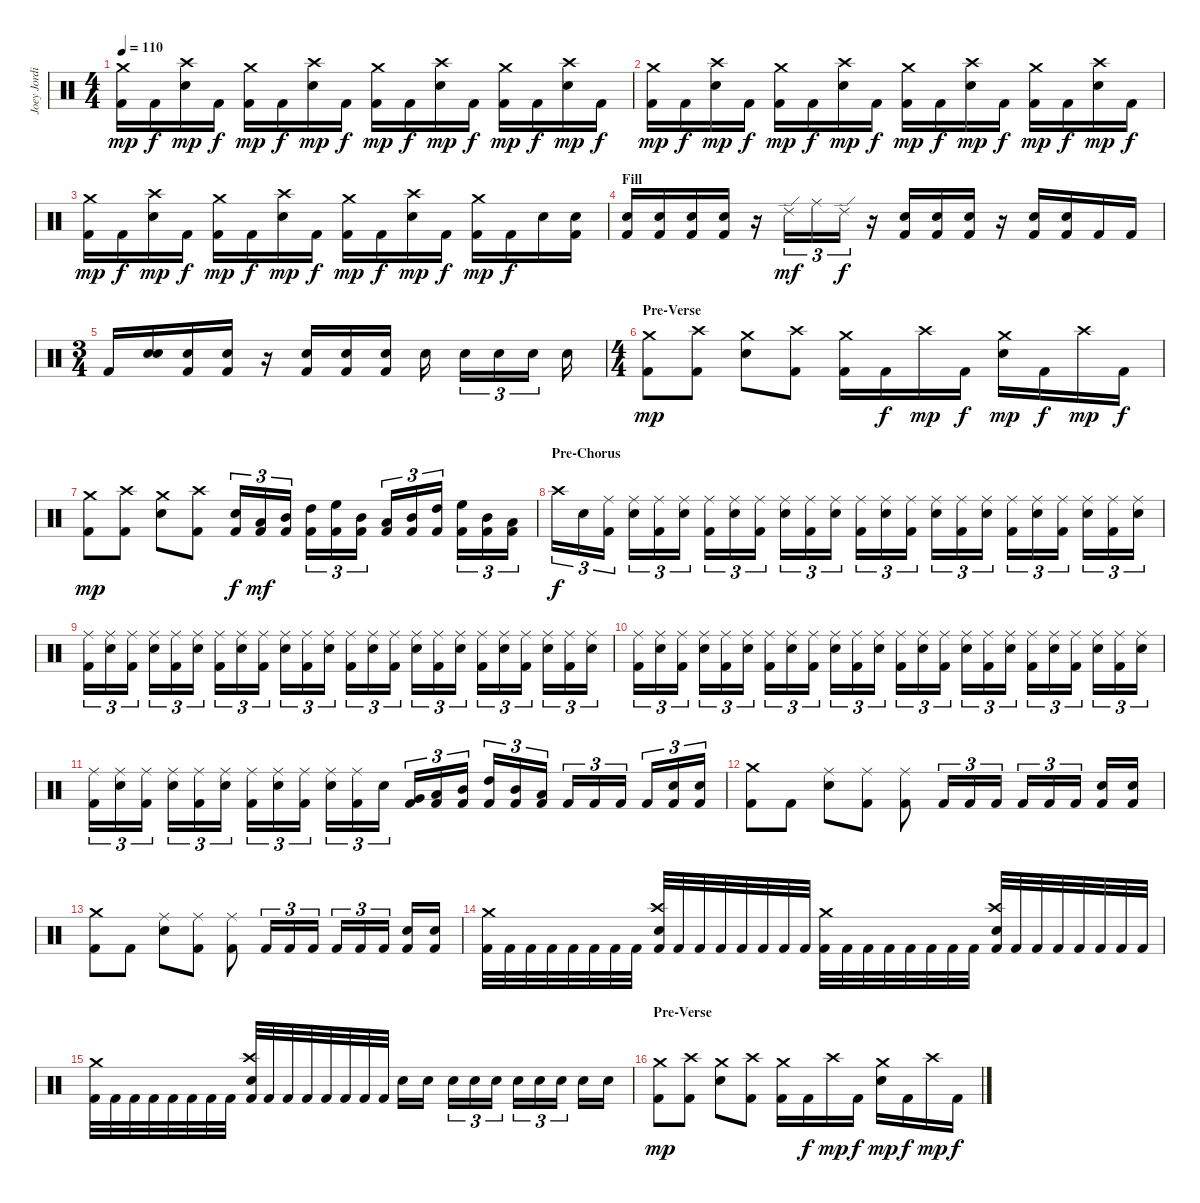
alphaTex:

\track ("Joey Jordison" "Joey Jordi") {instrument percussion}
\staff {score}
\articulation defaults
\ts (4 4)
\tempo 110
\clef neutral
\ks c
("Crash medium (hit)" "Kick (hit) 2").16{dy mp} "Kick (hit) 2".16{dy f} ("Crash high (hit)" "Snare (hit) 2").16{dy mp} "Kick (hit) 2".16{dy f} ("Crash medium (hit)" "Kick (hit) 2").16{dy mp} "Kick (hit) 2".16{dy f} ("Crash high (hit)" "Snare (hit) 2").16{dy mp} "Kick (hit) 2".16{dy f} ("Crash medium (hit)" "Kick (hit) 2").16{dy mp} "Kick (hit) 2".16{dy f} ("Crash high (hit)" "Snare (hit) 2").16{dy mp} "Kick (hit) 2".16{dy f} ("Crash medium (hit)" "Kick (hit) 2").16{dy mp} "Kick (hit) 2".16{dy f} ("Crash high (hit)" "Snare (hit) 2").16{dy mp} "Kick (hit) 2".16{dy f} |
("Crash medium (hit)" "Kick (hit) 2").16{dy mp} "Kick (hit) 2".16{dy f} ("Crash high (hit)" "Snare (hit) 2").16{dy mp} "Kick (hit) 2".16{dy f} ("Crash medium (hit)" "Kick (hit) 2").16{dy mp} "Kick (hit) 2".16{dy f} ("Crash high (hit)" "Snare (hit) 2").16{dy mp} "Kick (hit) 2".16{dy f} ("Crash medium (hit)" "Kick (hit) 2").16{dy mp} "Kick (hit) 2".16{dy f} ("Crash high (hit)" "Snare (hit) 2").16{dy mp} "Kick (hit) 2".16{dy f} ("Crash medium (hit)" "Kick (hit) 2").16{dy mp} "Kick (hit) 2".16{dy f} ("Crash high (hit)" "Snare (hit) 2").16{dy mp} "Kick (hit) 2".16{dy f} |
("Crash medium (hit)" "Kick (hit) 2").16{dy mp} "Kick (hit) 2".16{dy f} ("Crash high (hit)" "Snare (hit) 2").16{dy mp} "Kick (hit) 2".16{dy f} ("Crash medium (hit)" "Kick (hit) 2").16{dy mp} "Kick (hit) 2".16{dy f} ("Crash high (hit)" "Snare (hit) 2").16{dy mp} "Kick (hit) 2".16{dy f} ("Crash medium (hit)" "Kick (hit) 2").16{dy mp} "Kick (hit) 2".16{dy f} ("Crash high (hit)" "Snare (hit) 2").16{dy mp} "Kick (hit) 2".16{dy f} ("Crash medium (hit)" "Kick (hit) 2").16{dy mp} "Kick (hit) 2".16{dy f} "Snare (hit) 2".16 ("Snare (hit) 2" "Kick (hit) 2").16 |
\section ("" "Fill")
("Snare (hit) 2" "Kick (hit) 2").16 ("Snare (hit) 2" "Kick (hit) 2").16 ("Snare (hit) 2" "Kick (hit) 2").16 ("Snare (hit) 2" "Kick (hit) 2").16 r.16 "Ride (edge) 2".16{tu (3 2) dy mf} "Ride (middle)".16{tu (3 2)} "Ride (edge) 2".16{tu (3 2) dy f} r.16 ("Snare (hit) 2" "Kick (hit) 2").16 ("Snare (hit) 2" "Kick (hit) 2").16 ("Snare (hit) 2" "Kick (hit) 2").16 r.16 ("Snare (hit) 2" "Kick (hit) 2").16 ("Snare (hit) 2" "Kick (hit) 2").16 "Kick (hit) 2".16 "Kick (hit) 2".16 |
\ts (3 4)
"Kick (hit) 2".16 ("Snare (hit) 2" "Snare (hit) 2").16 ("Snare (hit) 2" "Kick (hit) 2").16 ("Snare (hit) 2" "Kick (hit) 2").16 r.16 ("Snare (hit) 2" "Kick (hit) 2").16 ("Snare (hit) 2" "Kick (hit) 2").16 ("Snare (hit) 2" "Kick (hit) 2").16 "Snare (hit) 2".16 "Snare (hit) 2".16{tu (3 2)} "Snare (hit) 2".16{tu (3 2)} "Snare (hit) 2".16{tu (3 2)} "Snare (hit) 2".16 |
\ts (4 4)
\section ("" "Pre-Verse")
("Crash medium (hit)" "Kick (hit) 2").8{dy mp} ("Crash high (hit)" "Kick (hit) 2").8 ("Crash medium (hit)" "Snare (hit) 2").8 ("Crash high (hit)" "Kick (hit) 2").8 ("Crash medium (hit)" "Kick (hit) 2").16 "Kick (hit) 2".16{dy f} "Crash high (hit)".16{dy mp} "Kick (hit) 2".16{dy f} ("Crash medium (hit)" "Snare (hit) 2").16{dy mp} "Kick (hit) 2".16{dy f} "Crash high (hit)".16{dy mp} "Kick (hit) 2".16{dy f} |
("Crash medium (hit)" "Kick (hit) 2").8{dy mp} ("Crash high (hit)" "Kick (hit) 2").8 ("Crash medium (hit)" "Snare (hit) 2").8 ("Crash high (hit)" "Kick (hit) 2").8 ("Snare (hit) 2" "Kick (hit) 2").16{tu (3 2) dy f} ("Low Tom (hit)" "Kick (hit) 2").16{tu (3 2) dy mf} ("Mid Tom (hit)" "Kick (hit) 2").16{tu (3 2)} ("High Tom (hit)" "Kick (hit) 2").16{tu (3 2)} ("High Floor Tom (hit)" "Kick (hit) 2").16{tu (3 2)} ("Mid Tom (hit)" "Kick (hit) 2").16{tu (3 2)} ("Low Tom (hit)" "Kick (hit) 2").16{tu (3 2)} ("Mid Tom (hit)" "Kick (hit) 2").16{tu (3 2)} ("High Tom (hit)" "Kick (hit) 2").16{tu (3 2)} ("High Floor Tom (hit)" "Kick (hit) 2").16{tu (3 2)} ("Mid Tom (hit)" "Kick (hit) 2").16{tu (3 2)} ("Low Tom (hit)" "Kick (hit) 2").16{tu (3 2)} |
\section ("" "Pre-Chorus")
"Crash high (hit)".16{tu (3 2) dy f} "Snare (hit) 2".16{tu (3 2)} ("Ride (middle)" "Kick (hit) 2").16{tu (3 2)} ("Ride (middle)" "Snare (hit) 2").16{tu (3 2)} ("Ride (middle)" "Kick (hit) 2").16{tu (3 2)} ("Ride (middle)" "Snare (hit) 2").16{tu (3 2)} ("Ride (middle)" "Kick (hit) 2").16{tu (3 2)} ("Ride (middle)" "Snare (hit) 2").16{tu (3 2)} ("Ride (middle)" "Kick (hit) 2").16{tu (3 2)} ("Ride (middle)" "Snare (hit) 2").16{tu (3 2)} ("Ride (middle)" "Kick (hit) 2").16{tu (3 2)} ("Ride (middle)" "Snare (hit) 2").16{tu (3 2)} ("Ride (middle)" "Kick (hit) 2").16{tu (3 2)} ("Ride (middle)" "Snare (hit) 2").16{tu (3 2)} ("Ride (middle)" "Kick (hit) 2").16{tu (3 2)} ("Ride (middle)" "Snare (hit) 2").16{tu (3 2)} ("Ride (middle)" "Kick (hit) 2").16{tu (3 2)} ("Ride (middle)" "Snare (hit) 2").16{tu (3 2)} ("Ride (middle)" "Kick (hit) 2").16{tu (3 2)} ("Ride (middle)" "Snare (hit) 2").16{tu (3 2)} ("Ride (middle)" "Kick (hit) 2").16{tu (3 2)} ("Ride (middle)" "Snare (hit) 2").16{tu (3 2)} ("Ride (middle)" "Kick (hit) 2").16{tu (3 2)} ("Ride (middle)" "Snare (hit) 2").16{tu (3 2)} |
("Ride (middle)" "Kick (hit) 2").16{tu (3 2)} ("Ride (middle)" "Snare (hit) 2").16{tu (3 2)} ("Ride (middle)" "Kick (hit) 2").16{tu (3 2)} ("Ride (middle)" "Snare (hit) 2").16{tu (3 2)} ("Ride (middle)" "Kick (hit) 2").16{tu (3 2)} ("Ride (middle)" "Snare (hit) 2").16{tu (3 2)} ("Ride (middle)" "Kick (hit) 2").16{tu (3 2)} ("Ride (middle)" "Snare (hit) 2").16{tu (3 2)} ("Ride (middle)" "Kick (hit) 2").16{tu (3 2)} ("Ride (middle)" "Snare (hit) 2").16{tu (3 2)} ("Ride (middle)" "Kick (hit) 2").16{tu (3 2)} ("Ride (middle)" "Snare (hit) 2").16{tu (3 2)} ("Ride (middle)" "Kick (hit) 2").16{tu (3 2)} ("Ride (middle)" "Snare (hit) 2").16{tu (3 2)} ("Ride (middle)" "Kick (hit) 2").16{tu (3 2)} ("Ride (middle)" "Snare (hit) 2").16{tu (3 2)} ("Ride (middle)" "Kick (hit) 2").16{tu (3 2)} ("Ride (middle)" "Snare (hit) 2").16{tu (3 2)} ("Ride (middle)" "Kick (hit) 2").16{tu (3 2)} ("Ride (middle)" "Snare (hit) 2").16{tu (3 2)} ("Ride (middle)" "Kick (hit) 2").16{tu (3 2)} ("Ride (middle)" "Snare (hit) 2").16{tu (3 2)} ("Ride (middle)" "Kick (hit) 2").16{tu (3 2)} ("Ride (middle)" "Snare (hit) 2").16{tu (3 2)} |
("Ride (middle)" "Kick (hit) 2").16{tu (3 2)} ("Ride (middle)" "Snare (hit) 2").16{tu (3 2)} ("Ride (middle)" "Kick (hit) 2").16{tu (3 2)} ("Ride (middle)" "Snare (hit) 2").16{tu (3 2)} ("Ride (middle)" "Kick (hit) 2").16{tu (3 2)} ("Ride (middle)" "Snare (hit) 2").16{tu (3 2)} ("Ride (middle)" "Kick (hit) 2").16{tu (3 2)} ("Ride (middle)" "Snare (hit) 2").16{tu (3 2)} ("Ride (middle)" "Kick (hit) 2").16{tu (3 2)} ("Ride (middle)" "Snare (hit) 2").16{tu (3 2)} ("Ride (middle)" "Kick (hit) 2").16{tu (3 2)} ("Ride (middle)" "Snare (hit) 2").16{tu (3 2)} ("Ride (middle)" "Kick (hit) 2").16{tu (3 2)} ("Ride (middle)" "Snare (hit) 2").16{tu (3 2)} ("Ride (middle)" "Kick (hit) 2").16{tu (3 2)} ("Ride (middle)" "Snare (hit) 2").16{tu (3 2)} ("Ride (middle)" "Kick (hit) 2").16{tu (3 2)} ("Ride (middle)" "Snare (hit) 2").16{tu (3 2)} ("Ride (middle)" "Kick (hit) 2").16{tu (3 2)} ("Ride (middle)" "Snare (hit) 2").16{tu (3 2)} ("Ride (middle)" "Kick (hit) 2").16{tu (3 2)} ("Ride (middle)" "Snare (hit) 2").16{tu (3 2)} ("Ride (middle)" "Kick (hit) 2").16{tu (3 2)} ("Ride (middle)" "Snare (hit) 2").16{tu (3 2)} |
("Ride (middle)" "Kick (hit) 2").16{tu (3 2)} ("Ride (middle)" "Snare (hit) 2").16{tu (3 2)} ("Ride (middle)" "Kick (hit) 2").16{tu (3 2)} ("Ride (middle)" "Snare (hit) 2").16{tu (3 2)} ("Ride (middle)" "Kick (hit) 2").16{tu (3 2)} ("Ride (middle)" "Snare (hit) 2").16{tu (3 2)} ("Ride (middle)" "Kick (hit) 2").16{tu (3 2)} ("Ride (middle)" "Snare (hit) 2").16{tu (3 2)} ("Ride (middle)" "Kick (hit) 2").16{tu (3 2)} ("Ride (middle)" "Snare (hit) 2").16{tu (3 2)} ("Ride (middle)" "Kick (hit) 2").16{tu (3 2)} "Snare (hit) 2".16{tu (3 2)} ("Very Low Tom (hit)" "Kick (hit) 2").16{tu (3 2)} ("Low Tom (hit)" "Kick (hit) 2").16{tu (3 2)} ("Mid Tom (hit)" "Kick (hit) 2").16{tu (3 2)} ("High Tom (hit)" "Kick (hit) 2").16{tu (3 2)} ("Mid Tom (hit)" "Kick (hit) 2").16{tu (3 2)} ("Low Tom (hit)" "Kick (hit) 2").16{tu (3 2)} "Kick (hit) 2".16{tu (3 2)} "Kick (hit) 2".16{tu (3 2)} "Kick (hit) 2".16{tu (3 2)} "Kick (hit) 2".16{tu (3 2)} ("Snare (hit) 2" "Kick (hit) 2").16{tu (3 2)} ("Snare (hit) 2" "Kick (hit) 2").16{tu (3 2)} |
("Crash medium (hit)" "Kick (hit) 2").8 "Kick (hit) 2".8 ("Ride (middle)" "Snare (hit) 2").8 ("Ride (middle)" "Kick (hit) 2").8 ("Ride (middle)" "Kick (hit) 2").8 "Kick (hit) 2".16{tu (3 2)} "Kick (hit) 2".16{tu (3 2)} "Kick (hit) 2".16{tu (3 2)} "Kick (hit) 2".16{tu (3 2)} "Kick (hit) 2".16{tu (3 2)} "Kick (hit) 2".16{tu (3 2)} ("Snare (hit) 2" "Kick (hit) 2").16 ("Snare (hit) 2" "Kick (hit) 2").16 |
("Crash medium (hit)" "Kick (hit) 2").8 "Kick (hit) 2".8 ("Ride (middle)" "Snare (hit) 2").8 ("Ride (middle)" "Kick (hit) 2").8 ("Ride (middle)" "Kick (hit) 2").8 "Kick (hit) 2".16{tu (3 2)} "Kick (hit) 2".16{tu (3 2)} "Kick (hit) 2".16{tu (3 2)} "Kick (hit) 2".16{tu (3 2)} "Kick (hit) 2".16{tu (3 2)} "Kick (hit) 2".16{tu (3 2)} ("Snare (hit) 2" "Kick (hit) 2").16 ("Snare (hit) 2" "Kick (hit) 2").16 |
("Crash medium (hit)" "Kick (hit) 2").32 "Kick (hit) 2".32 "Kick (hit) 2".32 "Kick (hit) 2".32 "Kick (hit) 2".32 "Kick (hit) 2".32 "Kick (hit) 2".32 "Kick (hit) 2".32 ("Crash high (hit)" "Snare (hit) 2" "Kick (hit) 2").32 "Kick (hit) 2".32 "Kick (hit) 2".32 "Kick (hit) 2".32 "Kick (hit) 2".32 "Kick (hit) 2".32 "Kick (hit) 2".32 "Kick (hit) 2".32 ("Crash medium (hit)" "Kick (hit) 2").32 "Kick (hit) 2".32 "Kick (hit) 2".32 "Kick (hit) 2".32 "Kick (hit) 2".32 "Kick (hit) 2".32 "Kick (hit) 2".32 "Kick (hit) 2".32 ("Crash high (hit)" "Snare (hit) 2" "Kick (hit) 2").32 "Kick (hit) 2".32 "Kick (hit) 2".32 "Kick (hit) 2".32 "Kick (hit) 2".32 "Kick (hit) 2".32 "Kick (hit) 2".32 "Kick (hit) 2".32 |
("Crash medium (hit)" "Kick (hit) 2").32 "Kick (hit) 2".32 "Kick (hit) 2".32 "Kick (hit) 2".32 "Kick (hit) 2".32 "Kick (hit) 2".32 "Kick (hit) 2".32 "Kick (hit) 2".32 ("Crash high (hit)" "Snare (hit) 2" "Kick (hit) 2").32 "Kick (hit) 2".32 "Kick (hit) 2".32 "Kick (hit) 2".32 "Kick (hit) 2".32 "Kick (hit) 2".32 "Kick (hit) 2".32 "Kick (hit) 2".32 "Snare (hit) 2".16 "Snare (hit) 2".16 "Snare (hit) 2".16{tu (3 2)} "Snare (hit) 2".16{tu (3 2)} "Snare (hit) 2".16{tu (3 2)} "Snare (hit) 2".16{tu (3 2)} "Snare (hit) 2".16{tu (3 2)} "Snare (hit) 2".16{tu (3 2)} "Snare (hit) 2".16 "Snare (hit) 2".16 |
\section ("" "Pre-Verse")
("Crash medium (hit)" "Kick (hit) 2").8{dy mp} ("Crash high (hit)" "Kick (hit) 2").8 ("Crash medium (hit)" "Snare (hit) 2").8 ("Crash high (hit)" "Kick (hit) 2").8 ("Crash medium (hit)" "Kick (hit) 2").16 "Kick (hit) 2".16{dy f} "Crash high (hit)".16{dy mp} "Kick (hit) 2".16{dy f} ("Crash medium (hit)" "Snare (hit) 2").16{dy mp} "Kick (hit) 2".16{dy f} "Crash high (hit)".16{dy mp} "Kick (hit) 2".16{dy f}
